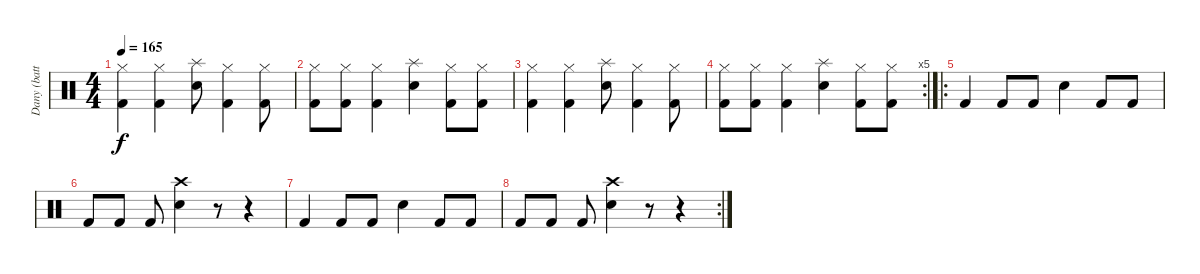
\track ("Dany (batterie)" "Dany (batt") {instrument percussion}
\staff {score}
\articulation defaults
\ts (4 4)
\tempo 165
\clef neutral
\ks c
("Hi-Hat (closed)" "Kick (hit) 2").4{dy f} ("Hi-Hat (closed)" "Kick (hit) 2").4 ("Splash (hit)" "Snare (hit) 2").8 ("Hi-Hat (closed)" "Kick (hit) 2").4 ("Hi-Hat (closed)" "Kick (hit) 2").8 |
("Hi-Hat (closed)" "Kick (hit) 2").8 ("Hi-Hat (closed)" "Kick (hit) 2").8 ("Hi-Hat (closed)" "Kick (hit) 2").4 ("Splash (hit)" "Snare (hit) 2").4 ("Hi-Hat (closed)" "Kick (hit) 2").8 ("Hi-Hat (closed)" "Kick (hit) 2").8 |
("Hi-Hat (closed)" "Kick (hit) 2").4 ("Hi-Hat (closed)" "Kick (hit) 2").4 ("Splash (hit)" "Snare (hit) 2").8 ("Hi-Hat (closed)" "Kick (hit) 2").4 ("Hi-Hat (closed)" "Kick (hit) 2").8 |
\rc 5
("Hi-Hat (closed)" "Kick (hit) 2").8 ("Hi-Hat (closed)" "Kick (hit) 2").8 ("Hi-Hat (closed)" "Kick (hit) 2").4 ("Splash (hit)" "Snare (hit) 2").4 ("Hi-Hat (closed)" "Kick (hit) 2").8 ("Hi-Hat (closed)" "Kick (hit) 2").8 |
\ro "Kick (hit) 2".4 "Kick (hit) 2".8 "Kick (hit) 2".8 "Snare (hit) 2".4 "Kick (hit) 2".8 "Kick (hit) 2".8
|
"Kick (hit) 2".8 "Kick (hit) 2".8 "Kick (hit) 2".8 ("Crash high (hit)" "Snare (hit) 2").4 r.8 r.4 |
"Kick (hit) 2".4 "Kick (hit) 2".8 "Kick (hit) 2".8 "Snare (hit) 2".4 "Kick (hit) 2".8 "Kick (hit) 2".8 |
\rc 2 "Kick (hit) 2".8 "Kick (hit) 2".8 "Kick (hit) 2".8
("Crash high (hit)" "Snare (hit) 2").4 r.8 r.4
